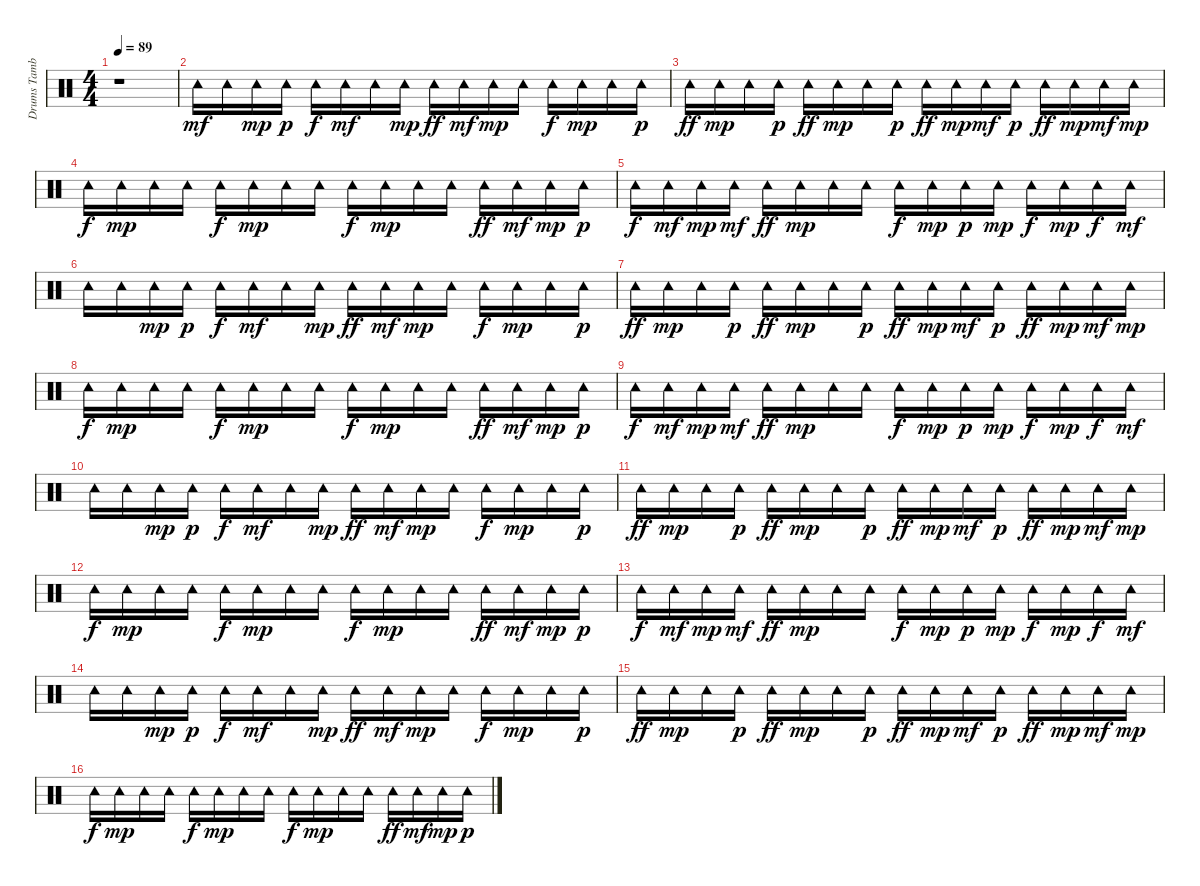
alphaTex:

\track ("Drums Tamburin" "Drums Tamb") {instrument percussion}
\staff {score}
\articulation defaults
\ts (4 4)
\tempo 89
\clef neutral
\ks c
r.1{dy mf} |
"Tambourine (hit)".16 "Tambourine (hit)".16 "Tambourine (hit)".16{dy mp} "Tambourine (hit)".16{dy p} "Tambourine (hit)".16{dy f} "Tambourine (hit)".16{dy mf} "Tambourine (hit)".16 "Tambourine (hit)".16{dy mp} "Tambourine (hit)".16{dy ff} "Tambourine (hit)".16{dy mf} "Tambourine (hit)".16{dy mp} "Tambourine (hit)".16 "Tambourine (hit)".16{dy f} "Tambourine (hit)".16{dy mp} "Tambourine (hit)".16 "Tambourine (hit)".16{dy p} |
"Tambourine (hit)".16{dy ff} "Tambourine (hit)".16{dy mp} "Tambourine (hit)".16 "Tambourine (hit)".16{dy p} "Tambourine (hit)".16{dy ff} "Tambourine (hit)".16{dy mp} "Tambourine (hit)".16 "Tambourine (hit)".16{dy p} "Tambourine (hit)".16{dy ff} "Tambourine (hit)".16{dy mp} "Tambourine (hit)".16{dy mf} "Tambourine (hit)".16{dy p} "Tambourine (hit)".16{dy ff} "Tambourine (hit)".16{dy mp} "Tambourine (hit)".16{dy mf} "Tambourine (hit)".16{dy mp} |
"Tambourine (hit)".16{dy f} "Tambourine (hit)".16{dy mp} "Tambourine (hit)".16 "Tambourine (hit)".16 "Tambourine (hit)".16{dy f} "Tambourine (hit)".16{dy mp} "Tambourine (hit)".16 "Tambourine (hit)".16 "Tambourine (hit)".16{dy f} "Tambourine (hit)".16{dy mp} "Tambourine (hit)".16 "Tambourine (hit)".16 "Tambourine (hit)".16{dy ff} "Tambourine (hit)".16{dy mf} "Tambourine (hit)".16{dy mp} "Tambourine (hit)".16{dy p} |
"Tambourine (hit)".16{dy f} "Tambourine (hit)".16{dy mf} "Tambourine (hit)".16{dy mp} "Tambourine (hit)".16{dy mf} "Tambourine (hit)".16{dy ff} "Tambourine (hit)".16{dy mp} "Tambourine (hit)".16 "Tambourine (hit)".16 "Tambourine (hit)".16{dy f} "Tambourine (hit)".16{dy mp} "Tambourine (hit)".16{dy p} "Tambourine (hit)".16{dy mp} "Tambourine (hit)".16{dy f} "Tambourine (hit)".16{dy mp} "Tambourine (hit)".16{dy f} "Tambourine (hit)".16{dy mf} |
"Tambourine (hit)".16 "Tambourine (hit)".16 "Tambourine (hit)".16{dy mp} "Tambourine (hit)".16{dy p} "Tambourine (hit)".16{dy f} "Tambourine (hit)".16{dy mf} "Tambourine (hit)".16 "Tambourine (hit)".16{dy mp} "Tambourine (hit)".16{dy ff} "Tambourine (hit)".16{dy mf} "Tambourine (hit)".16{dy mp} "Tambourine (hit)".16 "Tambourine (hit)".16{dy f} "Tambourine (hit)".16{dy mp} "Tambourine (hit)".16 "Tambourine (hit)".16{dy p} |
"Tambourine (hit)".16{dy ff} "Tambourine (hit)".16{dy mp} "Tambourine (hit)".16 "Tambourine (hit)".16{dy p} "Tambourine (hit)".16{dy ff} "Tambourine (hit)".16{dy mp} "Tambourine (hit)".16 "Tambourine (hit)".16{dy p} "Tambourine (hit)".16{dy ff} "Tambourine (hit)".16{dy mp} "Tambourine (hit)".16{dy mf} "Tambourine (hit)".16{dy p} "Tambourine (hit)".16{dy ff} "Tambourine (hit)".16{dy mp} "Tambourine (hit)".16{dy mf} "Tambourine (hit)".16{dy mp} |
"Tambourine (hit)".16{dy f} "Tambourine (hit)".16{dy mp} "Tambourine (hit)".16 "Tambourine (hit)".16 "Tambourine (hit)".16{dy f} "Tambourine (hit)".16{dy mp} "Tambourine (hit)".16 "Tambourine (hit)".16 "Tambourine (hit)".16{dy f} "Tambourine (hit)".16{dy mp} "Tambourine (hit)".16 "Tambourine (hit)".16 "Tambourine (hit)".16{dy ff} "Tambourine (hit)".16{dy mf} "Tambourine (hit)".16{dy mp} "Tambourine (hit)".16{dy p} |
"Tambourine (hit)".16{dy f} "Tambourine (hit)".16{dy mf} "Tambourine (hit)".16{dy mp} "Tambourine (hit)".16{dy mf} "Tambourine (hit)".16{dy ff} "Tambourine (hit)".16{dy mp} "Tambourine (hit)".16 "Tambourine (hit)".16 "Tambourine (hit)".16{dy f} "Tambourine (hit)".16{dy mp} "Tambourine (hit)".16{dy p} "Tambourine (hit)".16{dy mp} "Tambourine (hit)".16{dy f} "Tambourine (hit)".16{dy mp} "Tambourine (hit)".16{dy f} "Tambourine (hit)".16{dy mf} |
"Tambourine (hit)".16 "Tambourine (hit)".16 "Tambourine (hit)".16{dy mp} "Tambourine (hit)".16{dy p} "Tambourine (hit)".16{dy f} "Tambourine (hit)".16{dy mf} "Tambourine (hit)".16 "Tambourine (hit)".16{dy mp} "Tambourine (hit)".16{dy ff} "Tambourine (hit)".16{dy mf} "Tambourine (hit)".16{dy mp} "Tambourine (hit)".16 "Tambourine (hit)".16{dy f} "Tambourine (hit)".16{dy mp} "Tambourine (hit)".16 "Tambourine (hit)".16{dy p} |
"Tambourine (hit)".16{dy ff} "Tambourine (hit)".16{dy mp} "Tambourine (hit)".16 "Tambourine (hit)".16{dy p} "Tambourine (hit)".16{dy ff} "Tambourine (hit)".16{dy mp} "Tambourine (hit)".16 "Tambourine (hit)".16{dy p} "Tambourine (hit)".16{dy ff} "Tambourine (hit)".16{dy mp} "Tambourine (hit)".16{dy mf} "Tambourine (hit)".16{dy p} "Tambourine (hit)".16{dy ff} "Tambourine (hit)".16{dy mp} "Tambourine (hit)".16{dy mf} "Tambourine (hit)".16{dy mp} |
"Tambourine (hit)".16{dy f} "Tambourine (hit)".16{dy mp} "Tambourine (hit)".16 "Tambourine (hit)".16 "Tambourine (hit)".16{dy f} "Tambourine (hit)".16{dy mp} "Tambourine (hit)".16 "Tambourine (hit)".16 "Tambourine (hit)".16{dy f} "Tambourine (hit)".16{dy mp} "Tambourine (hit)".16 "Tambourine (hit)".16 "Tambourine (hit)".16{dy ff} "Tambourine (hit)".16{dy mf} "Tambourine (hit)".16{dy mp} "Tambourine (hit)".16{dy p} |
"Tambourine (hit)".16{dy f} "Tambourine (hit)".16{dy mf} "Tambourine (hit)".16{dy mp} "Tambourine (hit)".16{dy mf} "Tambourine (hit)".16{dy ff} "Tambourine (hit)".16{dy mp} "Tambourine (hit)".16 "Tambourine (hit)".16 "Tambourine (hit)".16{dy f} "Tambourine (hit)".16{dy mp} "Tambourine (hit)".16{dy p} "Tambourine (hit)".16{dy mp} "Tambourine (hit)".16{dy f} "Tambourine (hit)".16{dy mp} "Tambourine (hit)".16{dy f} "Tambourine (hit)".16{dy mf} |
"Tambourine (hit)".16 "Tambourine (hit)".16 "Tambourine (hit)".16{dy mp} "Tambourine (hit)".16{dy p} "Tambourine (hit)".16{dy f} "Tambourine (hit)".16{dy mf} "Tambourine (hit)".16 "Tambourine (hit)".16{dy mp} "Tambourine (hit)".16{dy ff} "Tambourine (hit)".16{dy mf} "Tambourine (hit)".16{dy mp} "Tambourine (hit)".16 "Tambourine (hit)".16{dy f} "Tambourine (hit)".16{dy mp} "Tambourine (hit)".16 "Tambourine (hit)".16{dy p} |
"Tambourine (hit)".16{dy ff} "Tambourine (hit)".16{dy mp} "Tambourine (hit)".16 "Tambourine (hit)".16{dy p} "Tambourine (hit)".16{dy ff} "Tambourine (hit)".16{dy mp} "Tambourine (hit)".16 "Tambourine (hit)".16{dy p} "Tambourine (hit)".16{dy ff} "Tambourine (hit)".16{dy mp} "Tambourine (hit)".16{dy mf} "Tambourine (hit)".16{dy p} "Tambourine (hit)".16{dy ff} "Tambourine (hit)".16{dy mp} "Tambourine (hit)".16{dy mf} "Tambourine (hit)".16{dy mp} |
"Tambourine (hit)".16{dy f} "Tambourine (hit)".16{dy mp} "Tambourine (hit)".16 "Tambourine (hit)".16 "Tambourine (hit)".16{dy f} "Tambourine (hit)".16{dy mp} "Tambourine (hit)".16 "Tambourine (hit)".16 "Tambourine (hit)".16{dy f} "Tambourine (hit)".16{dy mp} "Tambourine (hit)".16 "Tambourine (hit)".16 "Tambourine (hit)".16{dy ff} "Tambourine (hit)".16{dy mf} "Tambourine (hit)".16{dy mp} "Tambourine (hit)".16{dy p}
